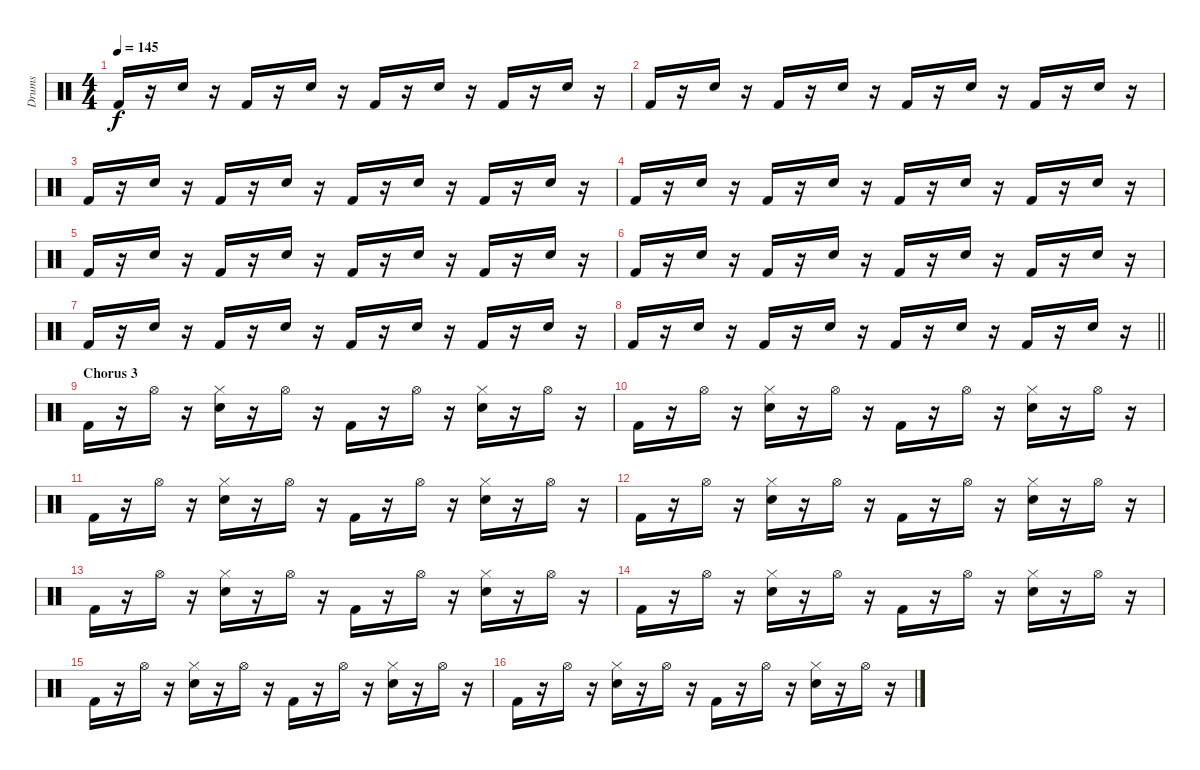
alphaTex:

\track ("Drums" "Drums") {instrument percussion}
\staff {score}
\articulation defaults
\ts (4 4)
\tempo 145
\clef neutral
\ks c "Kick (hit) 2".16{dy f}
r.16 "Hand Clap (hit)".16 r.16 "Kick (hit) 2".16 r.16 "Hand Clap (hit)".16 r.16 "Kick (hit) 2".16 r.16 "Hand Clap (hit)".16 r.16 "Kick (hit) 2".16 r.16 "Hand Clap (hit)".16 r.16 |
"Kick (hit) 2".16 r.16 "Hand Clap (hit)".16 r.16 "Kick (hit) 2".16 r.16 "Hand Clap (hit)".16 r.16 "Kick (hit) 2".16 r.16 "Hand Clap (hit)".16 r.16 "Kick (hit) 2".16 r.16 "Hand Clap (hit)".16 r.16 |
"Kick (hit) 2".16 r.16 "Hand Clap (hit)".16 r.16 "Kick (hit) 2".16 r.16 "Hand Clap (hit)".16 r.16 "Kick (hit) 2".16 r.16 "Hand Clap (hit)".16 r.16 "Kick (hit) 2".16 r.16 "Hand Clap (hit)".16 r.16 |
"Kick (hit) 2".16 r.16 "Hand Clap (hit)".16 r.16 "Kick (hit) 2".16 r.16 "Hand Clap (hit)".16 r.16 "Kick (hit) 2".16 r.16 "Hand Clap (hit)".16 r.16 "Kick (hit) 2".16 r.16 "Hand Clap (hit)".16 r.16 |
"Kick (hit) 2".16 r.16 "Hand Clap (hit)".16 r.16 "Kick (hit) 2".16 r.16 "Hand Clap (hit)".16 r.16 "Kick (hit) 2".16 r.16 "Hand Clap (hit)".16 r.16 "Kick (hit) 2".16 r.16 "Hand Clap (hit)".16 r.16 |
"Kick (hit) 2".16 r.16 "Hand Clap (hit)".16 r.16 "Kick (hit) 2".16 r.16 "Hand Clap (hit)".16 r.16 "Kick (hit) 2".16 r.16 "Hand Clap (hit)".16 r.16 "Kick (hit) 2".16 r.16 "Hand Clap (hit)".16 r.16 |
"Kick (hit) 2".16 r.16 "Hand Clap (hit)".16 r.16 "Kick (hit) 2".16 r.16 "Hand Clap (hit)".16 r.16 "Kick (hit) 2".16 r.16 "Hand Clap (hit)".16 r.16 "Kick (hit) 2".16 r.16 "Hand Clap (hit)".16 r.16 |
\barLineRight lightlight "Kick (hit) 2".16
r.16 "Hand Clap (hit)".16 r.16 "Kick (hit) 2".16 r.16 "Hand Clap (hit)".16 r.16 "Kick (hit) 2".16 r.16 "Hand Clap (hit)".16 r.16 "Kick (hit) 2".16 r.16 "Hand Clap (hit)".16 r.16 |
\section ("" "Chorus 3")
"Kick (hit) 2".16 r.16 "Hi-Hat (open)".16 r.16 ("Snare (hit) 2" "Hi-Hat (closed)").16 r.16 "Hi-Hat (open)".16 r.16 "Kick (hit) 2".16 r.16 "Hi-Hat (open)".16 r.16 ("Snare (hit) 2" "Hi-Hat (closed)").16 r.16 "Hi-Hat (open)".16 r.16 |
"Kick (hit) 2".16 r.16 "Hi-Hat (open)".16 r.16 ("Snare (hit) 2" "Hi-Hat (closed)").16 r.16 "Hi-Hat (open)".16 r.16 "Kick (hit) 2".16 r.16 "Hi-Hat (open)".16 r.16 ("Snare (hit) 2" "Hi-Hat (closed)").16 r.16 "Hi-Hat (open)".16 r.16 |
"Kick (hit) 2".16 r.16 "Hi-Hat (open)".16 r.16 ("Snare (hit) 2" "Hi-Hat (closed)").16 r.16 "Hi-Hat (open)".16 r.16 "Kick (hit) 2".16 r.16 "Hi-Hat (open)".16 r.16 ("Snare (hit) 2" "Hi-Hat (closed)").16 r.16 "Hi-Hat (open)".16 r.16 |
"Kick (hit) 2".16 r.16 "Hi-Hat (open)".16 r.16 ("Snare (hit) 2" "Hi-Hat (closed)").16 r.16 "Hi-Hat (open)".16 r.16 "Kick (hit) 2".16 r.16 "Hi-Hat (open)".16 r.16 ("Snare (hit) 2" "Hi-Hat (closed)").16 r.16 "Hi-Hat (open)".16 r.16 |
"Kick (hit) 2".16 r.16 "Hi-Hat (open)".16 r.16 ("Snare (hit) 2" "Hi-Hat (closed)").16 r.16 "Hi-Hat (open)".16 r.16 "Kick (hit) 2".16 r.16 "Hi-Hat (open)".16 r.16 ("Snare (hit) 2" "Hi-Hat (closed)").16 r.16 "Hi-Hat (open)".16 r.16 |
"Kick (hit) 2".16 r.16 "Hi-Hat (open)".16 r.16 ("Snare (hit) 2" "Hi-Hat (closed)").16 r.16 "Hi-Hat (open)".16 r.16 "Kick (hit) 2".16 r.16 "Hi-Hat (open)".16 r.16 ("Snare (hit) 2" "Hi-Hat (closed)").16 r.16 "Hi-Hat (open)".16 r.16 |
"Kick (hit) 2".16 r.16 "Hi-Hat (open)".16 r.16 ("Snare (hit) 2" "Hi-Hat (closed)").16 r.16 "Hi-Hat (open)".16 r.16 "Kick (hit) 2".16 r.16 "Hi-Hat (open)".16 r.16 ("Snare (hit) 2" "Hi-Hat (closed)").16 r.16 "Hi-Hat (open)".16 r.16 |
"Kick (hit) 2".16 r.16 "Hi-Hat (open)".16 r.16 ("Snare (hit) 2" "Hi-Hat (closed)").16 r.16 "Hi-Hat (open)".16 r.16 "Kick (hit) 2".16 r.16 "Hi-Hat (open)".16 r.16 ("Snare (hit) 2" "Hi-Hat (closed)").16 r.16 "Hi-Hat (open)".16 r.16
